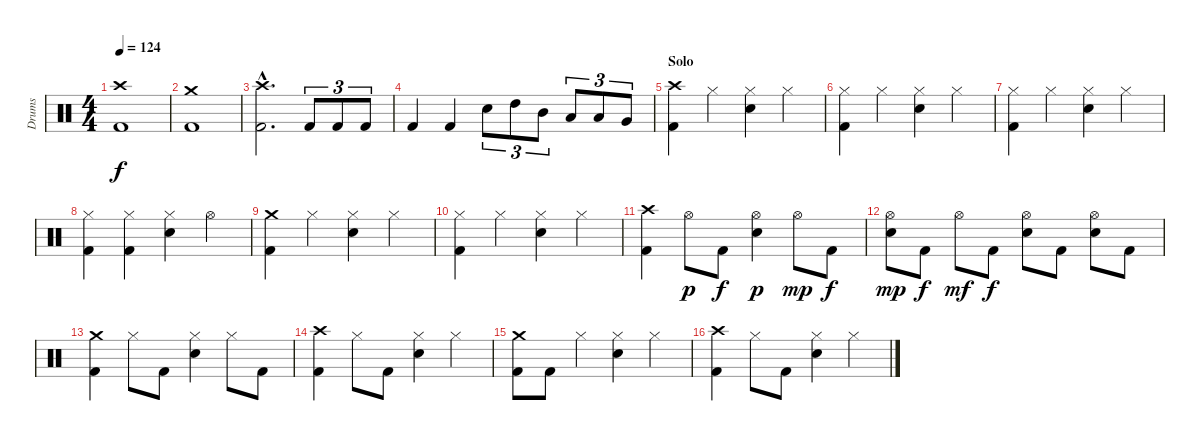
\track ("Drums" "Drums") {instrument percussion}
\staff {score}
\articulation defaults
\ts (4 4)
\tempo 124
\clef neutral
\ks c
("Kick (hit) 2" "Crash high (hit)").1{dy f} |
("Kick (hit) 2" "Crash medium (hit)").1 |
("Kick (hit) 2"{hac} "Crash high (hit)"{hac}).2{d} "Kick (hit) 2".8{tu (3 2)} "Kick (hit) 2".8{tu (3 2)} "Kick (hit) 2".8{tu (3 2)} |
"Kick (hit) 2".4 "Kick (hit) 2".4 "Electric Snare (hit)".8{tu (3 2)} "High Tom (hit)".8{tu (3 2)} "Mid Tom (hit)".8{tu (3 2)} "Low Tom (hit)".8{tu (3 2)} "Low Tom (hit)".8{tu (3 2)} "Very Low Tom (hit)".8{tu (3 2)} |
\section ("" "Solo")
("Kick (hit) 2" "Crash high (hit)").4 "Hi-Hat (closed)".4 ("Electric Snare (hit)" "Hi-Hat (closed)").4 "Hi-Hat (closed)".4 |
("Kick (hit) 2" "Hi-Hat (closed)").4 "Hi-Hat (closed)".4 ("Electric Snare (hit)" "Hi-Hat (closed)").4 "Hi-Hat (closed)".4 |
("Kick (hit) 2" "Hi-Hat (closed)").4 "Hi-Hat (closed)".4 ("Electric Snare (hit)" "Hi-Hat (closed)").4 "Hi-Hat (closed)".4 |
("Kick (hit) 2" "Hi-Hat (closed)").4 ("Kick (hit) 2" "Hi-Hat (closed)").4 ("Electric Snare (hit)" "Hi-Hat (closed)").4 "Hi-Hat (open)".4 |
("Kick (hit) 2" "Crash medium (hit)").4 "Hi-Hat (closed)".4 ("Electric Snare (hit)" "Hi-Hat (closed)").4 "Hi-Hat (closed)".4 |
("Kick (hit) 2" "Hi-Hat (closed)").4 "Hi-Hat (closed)".4 ("Electric Snare (hit)" "Hi-Hat (closed)").4 "Hi-Hat (closed)".4 |
("Kick (hit) 2" "Crash high (hit)").4 "Hi-Hat (open)".8{dy p} "Kick (hit) 2".8{dy f} ("Electric Snare (hit)" "Hi-Hat (open)").4{dy p} "Hi-Hat (open)".8{dy mp} "Kick (hit) 2".8{dy f} |
("Electric Snare (hit)" "Hi-Hat (open)").8{dy mp} "Kick (hit) 2".8{dy f} "Hi-Hat (open)".8{dy mf} "Kick (hit) 2".8{dy f} ("Electric Snare (hit)" "Hi-Hat (open)").8 "Kick (hit) 2".8 ("Electric Snare (hit)" "Hi-Hat (open)").8 "Kick (hit) 2".8 |
\section ("" "")
("Kick (hit) 2" "Crash medium (hit)").4 "Hi-Hat (closed)".8 "Kick (hit) 2".8 ("Electric Snare (hit)" "Hi-Hat (closed)").4 "Hi-Hat (closed)".8 "Kick (hit) 2".8 |
("Kick (hit) 2" "Crash high (hit)").4 "Hi-Hat (closed)".8 "Kick (hit) 2".8 ("Electric Snare (hit)" "Hi-Hat (closed)").4 "Hi-Hat (closed)".4 |
("Kick (hit) 2" "Crash medium (hit)").8 "Kick (hit) 2".8 "Hi-Hat (closed)".4 ("Electric Snare (hit)" "Hi-Hat (closed)").4 "Hi-Hat (closed)".4 |
("Kick (hit) 2" "Crash high (hit)").4 "Hi-Hat (closed)".8 "Kick (hit) 2".8 ("Electric Snare (hit)" "Hi-Hat (closed)").4 "Hi-Hat (closed)".4
